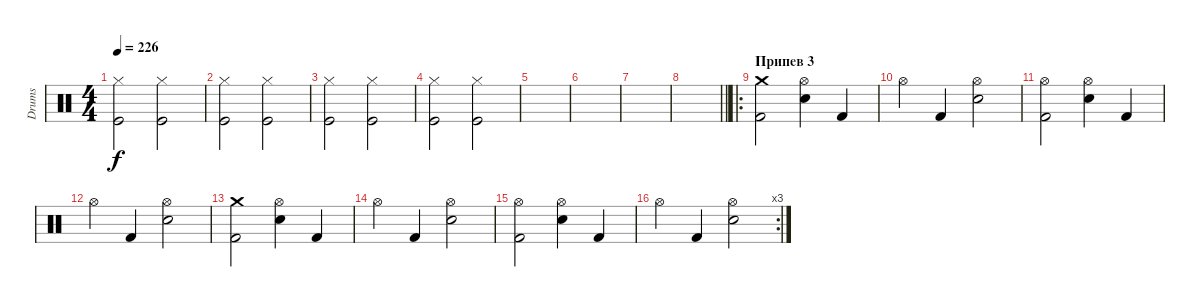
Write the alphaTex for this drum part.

\track ("Drums" "Drums") {instrument percussion}
\staff
\articulation defaults
\ts (4 4)
\tempo 226
\clef neutral
\ks c
("Hi-Hat (closed)" "Kick (hit)").2{dy f} ("Hi-Hat (closed)" "Kick (hit)").2 |
("Hi-Hat (closed)" "Kick (hit)").2 ("Hi-Hat (closed)" "Kick (hit)").2 |
("Hi-Hat (closed)" "Kick (hit)").2 ("Hi-Hat (closed)" "Kick (hit)").2 |
("Hi-Hat (closed)" "Kick (hit)").2 ("Hi-Hat (closed)" "Kick (hit)").2 |
|
|
|
\barLineRight lightlight
|
\ro
\section ("" "Припев 3")
("Crash medium (hit)" "Kick (hit) 2").2 ("Hi-Hat (open)" "Snare (hit) 2").4 "Kick (hit) 2".4 |
"Hi-Hat (open)".4 "Kick (hit) 2".4 ("Hi-Hat (open)" "Snare (hit) 2").2 |
("Hi-Hat (open)" "Kick (hit) 2").2 ("Hi-Hat (open)" "Snare (hit) 2").4 "Kick (hit) 2".4 |
"Hi-Hat (open)".4 "Kick (hit) 2".4 ("Hi-Hat (open)" "Snare (hit) 2").2 |
("Crash medium (hit)" "Kick (hit) 2").2 ("Hi-Hat (open)" "Snare (hit) 2").4 "Kick (hit) 2".4 |
"Hi-Hat (open)".4 "Kick (hit) 2".4 ("Hi-Hat (open)" "Snare (hit) 2").2 |
("Hi-Hat (open)" "Kick (hit) 2").2 ("Hi-Hat (open)" "Snare (hit) 2").4 "Kick (hit) 2".4 |
\rc 3 "Hi-Hat (open)".4 "Kick (hit) 2".4
("Hi-Hat (open)" "Snare (hit) 2").2
